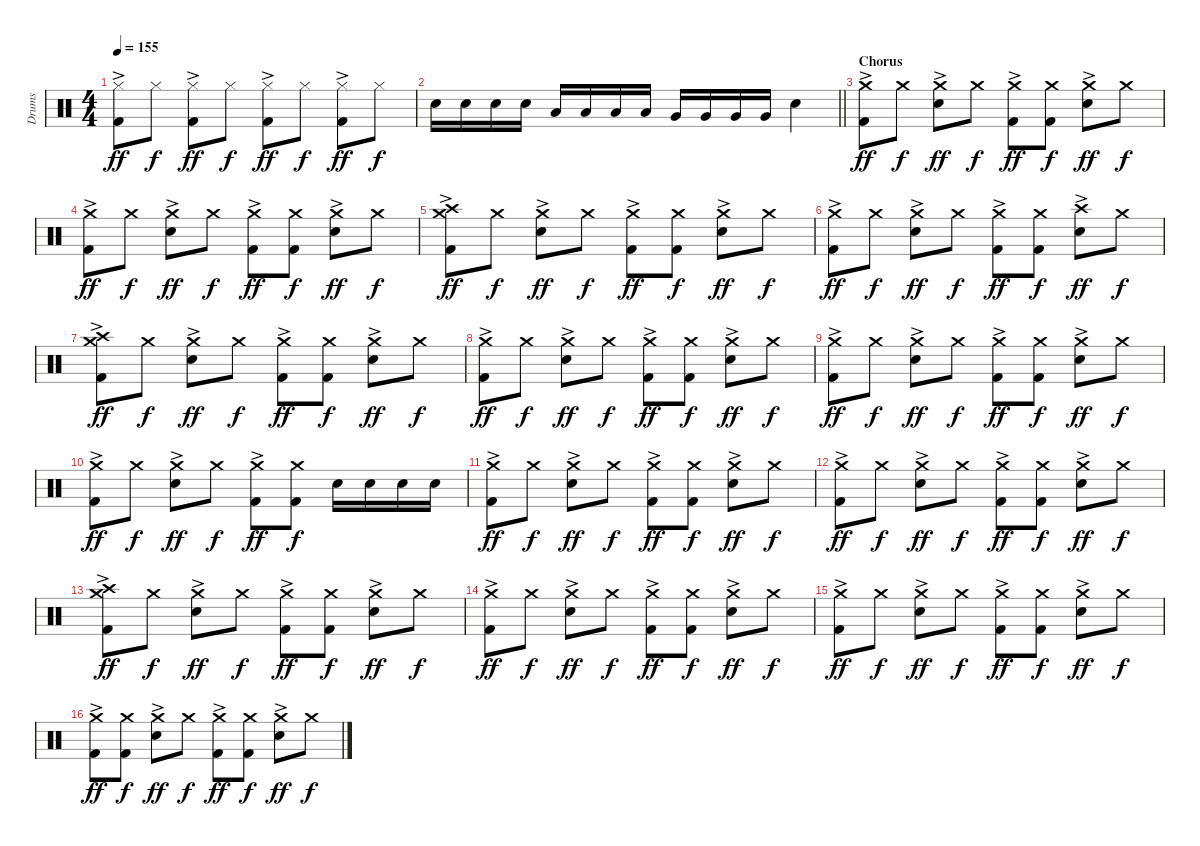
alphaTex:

\track ("Drums" "Drums") {instrument percussion}
\staff {score}
\articulation defaults
\ts (4 4)
\tempo 155
\clef neutral
\ks c
("Hi-Hat (closed)"{ac} "Kick (hit) 2").8{dy ff} "Hi-Hat (closed)".8{dy f} ("Hi-Hat (closed)"{ac} "Kick (hit) 2").8{dy ff} "Hi-Hat (closed)".8{dy f} ("Hi-Hat (closed)"{ac} "Kick (hit) 2").8{dy ff} "Hi-Hat (closed)".8{dy f} ("Hi-Hat (closed)"{ac} "Kick (hit) 2").8{dy ff} "Hi-Hat (closed)".8{dy f} |
\barLineRight lightlight "Electric Snare (hit)".16 "Electric Snare (hit)".16 "Electric Snare (hit)".16 "Electric Snare (hit)".16 "Low Tom (hit)".16 "Low Tom (hit)".16 "Low Tom (hit)".16 "Low Tom (hit)".16 "Very Low Tom (hit)".16 "Very Low Tom (hit)".16 "Very Low Tom (hit)".16 "Very Low Tom (hit)".16 "Electric Snare (hit)".4
|
\section ("" "Chorus")
("Crash medium (hit)"{ac} "Kick (hit) 2").8{dy ff} "Crash medium (hit)".8{dy f} ("Crash medium (hit)"{ac} "Electric Snare (hit)").8{dy ff} "Crash medium (hit)".8{dy f} ("Crash medium (hit)"{ac} "Kick (hit) 2").8{dy ff} ("Crash medium (hit)" "Kick (hit) 2").8{dy f} ("Crash medium (hit)"{ac} "Electric Snare (hit)").8{dy ff} "Crash medium (hit)".8{dy f} |
("Crash medium (hit)"{ac} "Kick (hit) 2").8{dy ff} "Crash medium (hit)".8{dy f} ("Crash medium (hit)"{ac} "Electric Snare (hit)").8{dy ff} "Crash medium (hit)".8{dy f} ("Crash medium (hit)"{ac} "Kick (hit) 2").8{dy ff} ("Crash medium (hit)" "Kick (hit) 2").8{dy f} ("Crash medium (hit)"{ac} "Electric Snare (hit)").8{dy ff} "Crash medium (hit)".8{dy f} |
("Crash medium (hit)"{ac} "Crash high (hit)" "Kick (hit) 2").8{dy ff} "Crash medium (hit)".8{dy f} ("Crash medium (hit)"{ac} "Electric Snare (hit)").8{dy ff} "Crash medium (hit)".8{dy f} ("Crash medium (hit)"{ac} "Kick (hit) 2").8{dy ff} ("Crash medium (hit)" "Kick (hit) 2").8{dy f} ("Crash medium (hit)"{ac} "Electric Snare (hit)").8{dy ff} "Crash medium (hit)".8{dy f} |
("Crash medium (hit)"{ac} "Kick (hit) 2").8{dy ff} "Crash medium (hit)".8{dy f} ("Crash medium (hit)"{ac} "Electric Snare (hit)").8{dy ff} "Crash medium (hit)".8{dy f} ("Crash medium (hit)"{ac} "Kick (hit) 2").8{dy ff} ("Crash medium (hit)" "Kick (hit) 2").8{dy f} ("Crash high (hit)"{ac} "Electric Snare (hit)").8{dy ff} "Crash medium (hit)".8{dy f} |
("Crash medium (hit)"{ac} "Crash high (hit)" "Kick (hit) 2").8{dy ff} "Crash medium (hit)".8{dy f} ("Crash medium (hit)"{ac} "Electric Snare (hit)").8{dy ff} "Crash medium (hit)".8{dy f} ("Crash medium (hit)"{ac} "Kick (hit) 2").8{dy ff} ("Crash medium (hit)" "Kick (hit) 2").8{dy f} ("Crash medium (hit)"{ac} "Electric Snare (hit)").8{dy ff} "Crash medium (hit)".8{dy f} |
("Crash medium (hit)"{ac} "Kick (hit) 2").8{dy ff} "Crash medium (hit)".8{dy f} ("Crash medium (hit)"{ac} "Electric Snare (hit)").8{dy ff} "Crash medium (hit)".8{dy f} ("Crash medium (hit)"{ac} "Kick (hit) 2").8{dy ff} ("Crash medium (hit)" "Kick (hit) 2").8{dy f} ("Crash medium (hit)"{ac} "Electric Snare (hit)").8{dy ff} "Crash medium (hit)".8{dy f} |
("Crash medium (hit)"{ac} "Kick (hit) 2").8{dy ff} "Crash medium (hit)".8{dy f} ("Crash medium (hit)"{ac} "Electric Snare (hit)").8{dy ff} "Crash medium (hit)".8{dy f} ("Crash medium (hit)"{ac} "Kick (hit) 2").8{dy ff} ("Crash medium (hit)" "Kick (hit) 2").8{dy f} ("Crash medium (hit)"{ac} "Electric Snare (hit)").8{dy ff} "Crash medium (hit)".8{dy f} |
("Crash medium (hit)"{ac} "Kick (hit) 2").8{dy ff} "Crash medium (hit)".8{dy f} ("Crash medium (hit)"{ac} "Electric Snare (hit)").8{dy ff} "Crash medium (hit)".8{dy f} ("Crash medium (hit)"{ac} "Kick (hit) 2").8{dy ff} ("Crash medium (hit)" "Kick (hit) 2").8{dy f} "Electric Snare (hit)".16 "Electric Snare (hit)".16 "Electric Snare (hit)".16 "Electric Snare (hit)".16 |
("Crash medium (hit)"{ac} "Kick (hit) 2").8{dy ff} "Crash medium (hit)".8{dy f} ("Crash medium (hit)"{ac} "Electric Snare (hit)").8{dy ff} "Crash medium (hit)".8{dy f} ("Crash medium (hit)"{ac} "Kick (hit) 2").8{dy ff} ("Crash medium (hit)" "Kick (hit) 2").8{dy f} ("Crash medium (hit)"{ac} "Electric Snare (hit)").8{dy ff} "Crash medium (hit)".8{dy f} |
("Crash medium (hit)"{ac} "Kick (hit) 2").8{dy ff} "Crash medium (hit)".8{dy f} ("Crash medium (hit)"{ac} "Electric Snare (hit)").8{dy ff} "Crash medium (hit)".8{dy f} ("Crash medium (hit)"{ac} "Kick (hit) 2").8{dy ff} ("Crash medium (hit)" "Kick (hit) 2").8{dy f} ("Crash medium (hit)"{ac} "Electric Snare (hit)").8{dy ff} "Crash medium (hit)".8{dy f} |
("Crash medium (hit)"{ac} "Crash high (hit)" "Kick (hit) 2").8{dy ff} "Crash medium (hit)".8{dy f} ("Crash medium (hit)"{ac} "Electric Snare (hit)").8{dy ff} "Crash medium (hit)".8{dy f} ("Crash medium (hit)"{ac} "Kick (hit) 2").8{dy ff} ("Crash medium (hit)" "Kick (hit) 2").8{dy f} ("Crash medium (hit)"{ac} "Electric Snare (hit)").8{dy ff} "Crash medium (hit)".8{dy f} |
("Crash medium (hit)"{ac} "Kick (hit) 2").8{dy ff} "Crash medium (hit)".8{dy f} ("Crash medium (hit)"{ac} "Electric Snare (hit)").8{dy ff} "Crash medium (hit)".8{dy f} ("Crash medium (hit)"{ac} "Kick (hit) 2").8{dy ff} ("Crash medium (hit)" "Kick (hit) 2").8{dy f} ("Crash medium (hit)"{ac} "Electric Snare (hit)").8{dy ff} "Crash medium (hit)".8{dy f} |
("Crash medium (hit)"{ac} "Kick (hit) 2").8{dy ff} "Crash medium (hit)".8{dy f} ("Crash medium (hit)"{ac} "Electric Snare (hit)").8{dy ff} "Crash medium (hit)".8{dy f} ("Crash medium (hit)"{ac} "Kick (hit) 2").8{dy ff} ("Crash medium (hit)" "Kick (hit) 2").8{dy f} ("Crash medium (hit)"{ac} "Electric Snare (hit)").8{dy ff} "Crash medium (hit)".8{dy f} |
("Crash medium (hit)"{ac} "Kick (hit) 2").8{dy ff} ("Crash medium (hit)" "Kick (hit) 2").8{dy f} ("Crash medium (hit)"{ac} "Electric Snare (hit)").8{dy ff} "Crash medium (hit)".8{dy f} ("Crash medium (hit)"{ac} "Kick (hit) 2").8{dy ff} ("Crash medium (hit)" "Kick (hit) 2").8{dy f} ("Crash medium (hit)"{ac} "Electric Snare (hit)").8{dy ff} "Crash medium (hit)".8{dy f}
